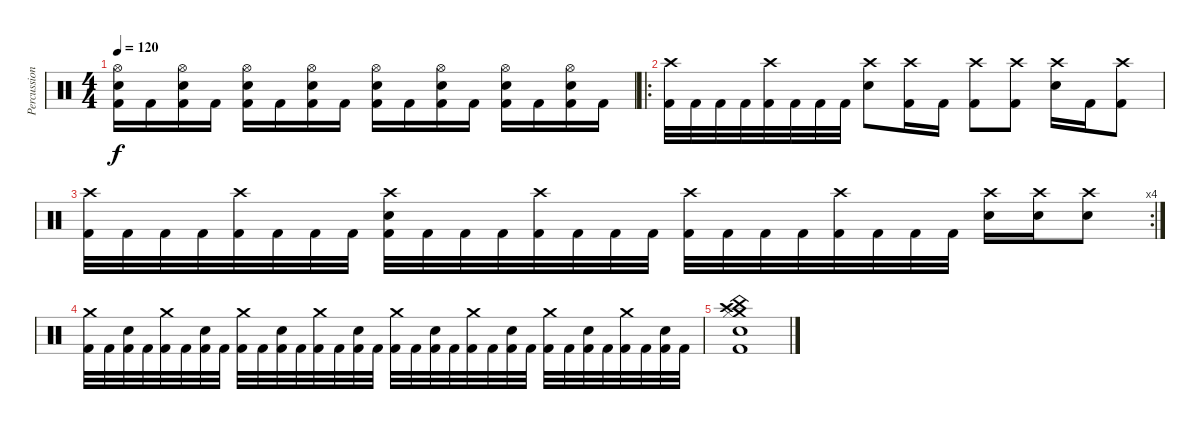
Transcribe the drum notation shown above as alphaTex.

\track ("Percussions" "Percussion") {instrument percussion}
\staff {score}
\articulation defaults
\ts (4 4)
\tempo 120
\clef neutral
\ks c
("Hi-Hat (open)" "Electric Snare (hit)" "Kick (hit) 2").16{dy f} "Kick (hit) 2".16 ("Hi-Hat (open)" "Electric Snare (hit)" "Kick (hit) 2").16 "Kick (hit) 2".16 ("Hi-Hat (open)" "Electric Snare (hit)" "Kick (hit) 2").16 "Kick (hit) 2".16 ("Hi-Hat (open)" "Electric Snare (hit)" "Kick (hit) 2").16 "Kick (hit) 2".16 ("Hi-Hat (open)" "Electric Snare (hit)" "Kick (hit) 2").16 "Kick (hit) 2".16 ("Hi-Hat (open)" "Electric Snare (hit)" "Kick (hit) 2").16 "Kick (hit) 2".16 ("Hi-Hat (open)" "Electric Snare (hit)" "Kick (hit) 2").16 "Kick (hit) 2".16 ("Hi-Hat (open)" "Electric Snare (hit)" "Kick (hit) 2").16 "Kick (hit) 2".16 |
\ro
("Crash high (hit)" "Kick (hit) 2").32 "Kick (hit) 2".32 "Kick (hit) 2".32 "Kick (hit) 2".32 ("Crash high (hit)" "Kick (hit) 2").32 "Kick (hit) 2".32 "Kick (hit) 2".32 "Kick (hit) 2".32 ("Crash high (hit)" "Snare (hit) 2").8 ("Crash high (hit)" "Kick (hit) 2").16 "Kick (hit) 2".16 ("Crash high (hit)" "Kick (hit) 2").8 ("Crash high (hit)" "Kick (hit) 2").8 ("Crash high (hit)" "Snare (hit) 2").16 "Kick (hit) 2".16 ("Crash high (hit)" "Kick (hit) 2").8 |
\rc 4
("Crash high (hit)" "Kick (hit) 2").32 "Kick (hit) 2".32 "Kick (hit) 2".32 "Kick (hit) 2".32 ("Crash high (hit)" "Kick (hit) 2").32 "Kick (hit) 2".32 "Kick (hit) 2".32 "Kick (hit) 2".32 ("Crash high (hit)" "Snare (hit) 2" "Kick (hit) 2").32 "Kick (hit) 2".32 "Kick (hit) 2".32 "Kick (hit) 2".32 ("Crash high (hit)" "Kick (hit) 2").32 "Kick (hit) 2".32 "Kick (hit) 2".32 "Kick (hit) 2".32 ("Crash high (hit)" "Kick (hit) 2").32 "Kick (hit) 2".32 "Kick (hit) 2".32 "Kick (hit) 2".32 ("Crash high (hit)" "Kick (hit) 2").32 "Kick (hit) 2".32 "Kick (hit) 2".32 "Kick (hit) 2".32 ("Crash high (hit)" "Snare (hit) 2").16 ("Crash high (hit)" "Snare (hit) 2").16 ("Crash high (hit)" "Snare (hit) 2").8 |
("Crash medium (hit)" "Kick (hit) 2").32 "Kick (hit) 2".32 ("Electric Snare (hit)" "Kick (hit) 2").32 "Kick (hit) 2".32 ("Crash medium (hit)" "Kick (hit) 2").32 "Kick (hit) 2".32 ("Electric Snare (hit)" "Kick (hit) 2").32 "Kick (hit) 2".32 ("Crash medium (hit)" "Kick (hit) 2").32 "Kick (hit) 2".32 ("Electric Snare (hit)" "Kick (hit) 2").32 "Kick (hit) 2".32 ("Crash medium (hit)" "Kick (hit) 2").32 "Kick (hit) 2".32 ("Electric Snare (hit)" "Kick (hit) 2").32 "Kick (hit) 2".32 ("Crash medium (hit)" "Kick (hit) 2").32 "Kick (hit) 2".32 ("Electric Snare (hit)" "Kick (hit) 2").32 "Kick (hit) 2".32 ("Crash medium (hit)" "Kick (hit) 2").32 "Kick (hit) 2".32 ("Electric Snare (hit)" "Kick (hit) 2").32 "Kick (hit) 2".32 ("Crash medium (hit)" "Kick (hit) 2").32 "Kick (hit) 2".32 ("Electric Snare (hit)" "Kick (hit) 2").32 "Kick (hit) 2".32 ("Crash medium (hit)" "Kick (hit) 2").32 "Kick (hit) 2".32 ("Electric Snare (hit)" "Kick (hit) 2").32 "Kick (hit) 2".32 |
("China (hit)" "Crash medium (hit)" "Crash high (hit)" "Electric Snare (hit)" "Hi-Hat (closed)" "Kick (hit) 2").1
